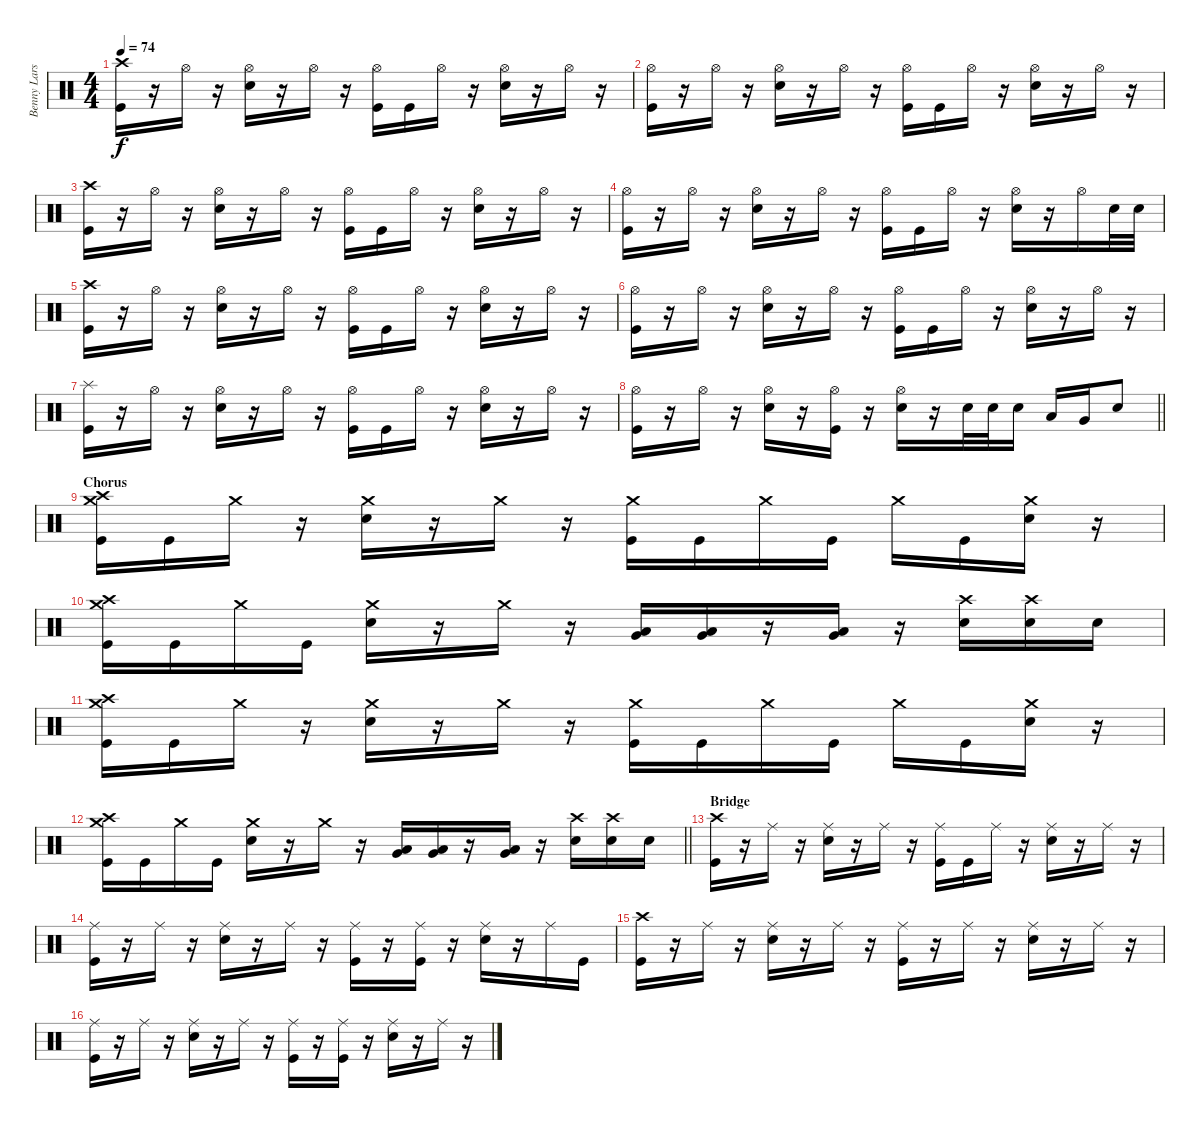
\track ("Benny Larsson" "Benny Lars") {instrument percussion}
\staff {score}
\articulation defaults
\ts (4 4)
\tempo 74
\clef neutral
\ks c
("Crash high (hit)" "Kick (hit)").16{dy f} r.16 "Hi-Hat (open)".16 r.16 ("Hi-Hat (open)" "Snare (hit) 2").16 r.16 "Hi-Hat (open)".16 r.16 ("Hi-Hat (open)" "Kick (hit)").16 "Kick (hit)".16 "Hi-Hat (open)".16 r.16 ("Hi-Hat (open)" "Snare (hit) 2").16 r.16 "Hi-Hat (open)".16 r.16 |
("Hi-Hat (open)" "Kick (hit)").16 r.16 "Hi-Hat (open)".16 r.16 ("Hi-Hat (open)" "Snare (hit) 2").16 r.16 "Hi-Hat (open)".16 r.16 ("Hi-Hat (open)" "Kick (hit)").16 "Kick (hit)".16 "Hi-Hat (open)".16 r.16 ("Hi-Hat (open)" "Snare (hit) 2").16 r.16 "Hi-Hat (open)".16 r.16 |
("Crash high (hit)" "Kick (hit)").16 r.16 "Hi-Hat (open)".16 r.16 ("Hi-Hat (open)" "Snare (hit) 2").16 r.16 "Hi-Hat (open)".16 r.16 ("Hi-Hat (open)" "Kick (hit)").16 "Kick (hit)".16 "Hi-Hat (open)".16 r.16 ("Hi-Hat (open)" "Snare (hit) 2").16 r.16 "Hi-Hat (open)".16 r.16 |
("Hi-Hat (open)" "Kick (hit)").16 r.16 "Hi-Hat (open)".16 r.16 ("Hi-Hat (open)" "Snare (hit) 2").16 r.16 "Hi-Hat (open)".16 r.16 ("Hi-Hat (open)" "Kick (hit)").16 "Kick (hit)".16 "Hi-Hat (open)".16 r.16 ("Hi-Hat (open)" "Snare (hit) 2").16 r.16 "Hi-Hat (open)".16 "Snare (hit) 2".32 "Snare (hit) 2".32 |
("Crash high (hit)" "Kick (hit)").16 r.16 "Hi-Hat (open)".16 r.16 ("Hi-Hat (open)" "Snare (hit) 2").16 r.16 "Hi-Hat (open)".16 r.16 ("Hi-Hat (open)" "Kick (hit)").16 "Kick (hit)".16 "Hi-Hat (open)".16 r.16 ("Hi-Hat (open)" "Snare (hit) 2").16 r.16 "Hi-Hat (open)".16 r.16 |
("Hi-Hat (open)" "Kick (hit)").16 r.16 "Hi-Hat (open)".16 r.16 ("Hi-Hat (open)" "Snare (hit) 2").16 r.16 "Hi-Hat (open)".16 r.16 ("Hi-Hat (open)" "Kick (hit)").16 "Kick (hit)".16 "Hi-Hat (open)".16 r.16 ("Hi-Hat (open)" "Snare (hit) 2").16 r.16 "Hi-Hat (open)".16 r.16 |
("Splash (hit)" "Kick (hit)").16 r.16 "Hi-Hat (open)".16 r.16 ("Hi-Hat (open)" "Snare (hit) 2").16 r.16 "Hi-Hat (open)".16 r.16 ("Hi-Hat (open)" "Kick (hit)").16 "Kick (hit)".16 "Hi-Hat (open)".16 r.16 ("Hi-Hat (open)" "Snare (hit) 2").16 r.16 "Hi-Hat (open)".16 r.16 |
\barLineRight lightlight
("Hi-Hat (open)" "Kick (hit)").16 r.16 "Hi-Hat (open)".16 r.16 ("Hi-Hat (open)" "Snare (hit) 2").16 r.16 ("Hi-Hat (open)" "Kick (hit)").16 r.16 ("Hi-Hat (open)" "Snare (hit) 2").16 r.16 "Snare (hit) 2".32 "Snare (hit) 2".32 "Snare (hit) 2".16 "Low Tom (hit)".16 "Very Low Tom (hit)".16 "Snare (hit) 2".8 |
\section ("" "Chorus")
("Crash high (hit)" "Crash medium (hit)" "Kick (hit)").16 "Kick (hit)".16 "Crash medium (hit)".16 r.16 ("Crash medium (hit)" "Snare (hit) 2").16 r.16 "Crash medium (hit)".16 r.16 ("Crash medium (hit)" "Kick (hit)").16 "Kick (hit)".16 "Crash medium (hit)".16 "Kick (hit)".16 "Crash medium (hit)".16 "Kick (hit)".16 ("Crash medium (hit)" "Snare (hit) 2").16 r.16 |
("Crash high (hit)" "Crash medium (hit)" "Kick (hit)").16 "Kick (hit)".16 "Crash medium (hit)".16 "Kick (hit)".16 ("Crash medium (hit)" "Snare (hit) 2").16 r.16 "Crash medium (hit)".16 r.16 ("Very Low Tom (hit)" "Low Floor Tom (hit)").16 ("Very Low Tom (hit)" "Low Floor Tom (hit)").16 r.16 ("Very Low Tom (hit)" "Low Floor Tom (hit)").16 r.16 ("Crash high (hit)" "Snare (hit) 2").16 ("Crash high (hit)" "Snare (hit) 2").16 "Snare (hit) 2".16 |
("Crash high (hit)" "Crash medium (hit)" "Kick (hit)").16 "Kick (hit)".16 "Crash medium (hit)".16 r.16 ("Crash medium (hit)" "Snare (hit) 2").16 r.16 "Crash medium (hit)".16 r.16 ("Crash medium (hit)" "Kick (hit)").16 "Kick (hit)".16 "Crash medium (hit)".16 "Kick (hit)".16 "Crash medium (hit)".16 "Kick (hit)".16 ("Crash medium (hit)" "Snare (hit) 2").16 r.16 |
\barLineRight lightlight
("Crash high (hit)" "Crash medium (hit)" "Kick (hit)").16 "Kick (hit)".16 "Crash medium (hit)".16 "Kick (hit)".16 ("Crash medium (hit)" "Snare (hit) 2").16 r.16 "Crash medium (hit)".16 r.16 ("Very Low Tom (hit)" "Low Floor Tom (hit)").16 ("Very Low Tom (hit)" "Low Floor Tom (hit)").16 r.16 ("Very Low Tom (hit)" "Low Floor Tom (hit)").16 r.16 ("Crash high (hit)" "Snare (hit) 2").16 ("Crash high (hit)" "Snare (hit) 2").16 "Snare (hit) 2".16 |
\section ("" "Bridge")
("Crash high (hit)" "Kick (hit)").16 r.16 "Ride (middle)".16 r.16 ("Ride (middle)" "Snare (hit) 2").16 r.16 "Ride (middle)".16 r.16 ("Ride (middle)" "Kick (hit)").16 "Kick (hit)".16 "Ride (middle)".16 r.16 ("Ride (middle)" "Snare (hit) 2").16 r.16 "Ride (middle)".16 r.16 |
("Ride (middle)" "Kick (hit)").16 r.16 "Ride (middle)".16 r.16 ("Ride (middle)" "Snare (hit) 2").16 r.16 "Ride (middle)".16 r.16 ("Ride (middle)" "Kick (hit)").16 r.16 ("Ride (middle)" "Kick (hit)").16 r.16 ("Ride (middle)" "Snare (hit) 2").16 r.16 "Ride (middle)".16 "Kick (hit)".16 |
("Crash high (hit)" "Kick (hit)").16 r.16 "Ride (middle)".16 r.16 ("Ride (middle)" "Snare (hit) 2").16 r.16 "Ride (middle)".16 r.16 ("Ride (middle)" "Kick (hit)").16 r.16 "Ride (middle)".16 r.16 ("Ride (middle)" "Snare (hit) 2").16 r.16 "Ride (middle)".16 r.16 |
("Ride (middle)" "Kick (hit)").16 r.16 "Ride (middle)".16 r.16 ("Ride (middle)" "Snare (hit) 2").16 r.16 "Ride (middle)".16 r.16 ("Ride (middle)" "Kick (hit)").16 r.16 ("Ride (middle)" "Kick (hit)").16 r.16 ("Ride (middle)" "Snare (hit) 2").16 r.16 "Ride (middle)".16 r.16
